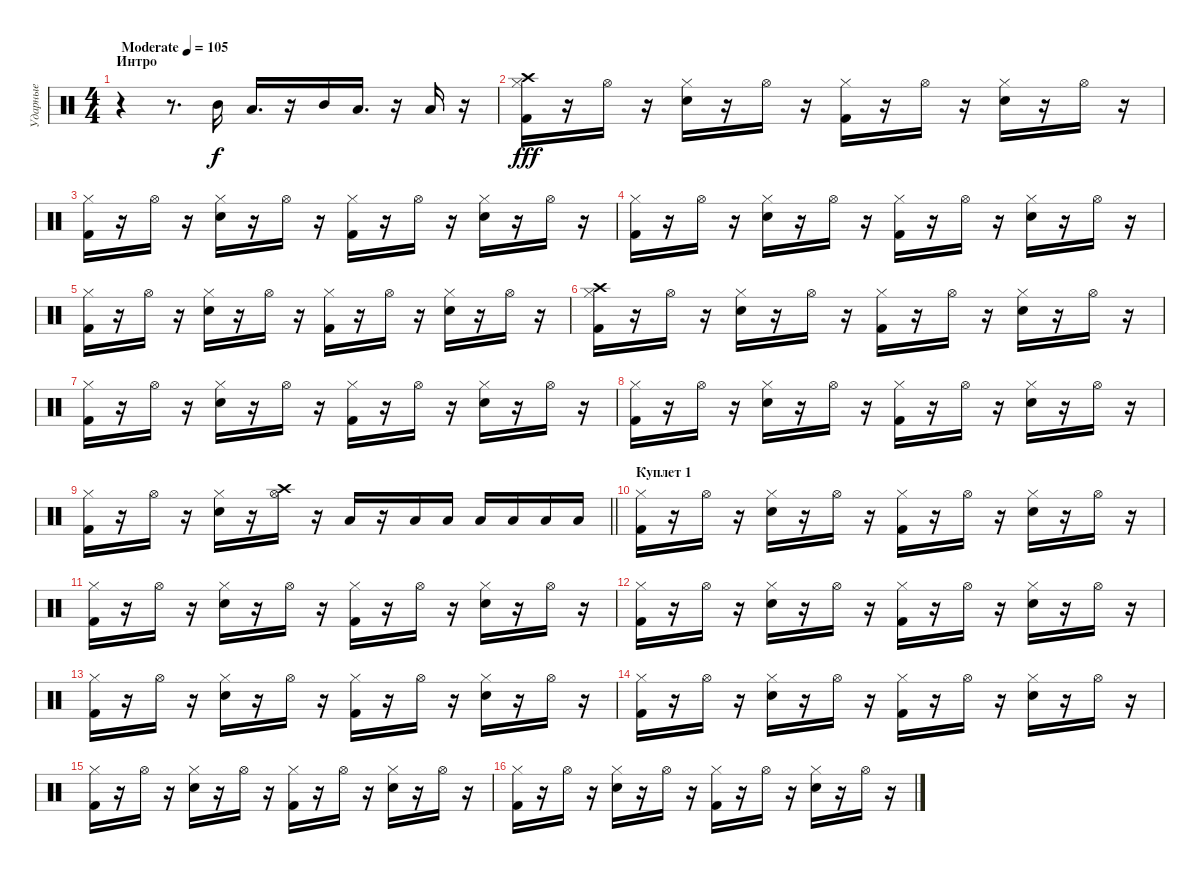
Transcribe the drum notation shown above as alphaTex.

\track ("Ударные" "Ударные") {instrument percussion}
\staff {score}
\articulation defaults
\ts (4 4)
\section ("" "Интро")
\tempo (105 "Moderate")
\clef neutral
\ks c
r.4{dy f} r.8{d} "Mid Tom (hit)".16 "Low Tom (hit)".16{d} r.16 "Mid Tom (hit)".16 "Low Tom (hit)".16{d} r.16 "Low Tom (hit)".16 r.16 |
("Kick (hit) 2" "Hi-Hat (closed)" "Crash high (hit)").16{dy fff} r.16 "Hi-Hat (open)".16 r.16 ("Snare (hit) 2" "Hi-Hat (closed)").16 r.16 "Hi-Hat (open)".16 r.16 ("Kick (hit) 2" "Hi-Hat (closed)").16 r.16 "Hi-Hat (open)".16 r.16 ("Snare (hit) 2" "Hi-Hat (closed)").16 r.16 "Hi-Hat (open)".16 r.16 |
("Kick (hit) 2" "Hi-Hat (closed)").16 r.16 "Hi-Hat (open)".16 r.16 ("Snare (hit) 2" "Hi-Hat (closed)").16 r.16 "Hi-Hat (open)".16 r.16 ("Kick (hit) 2" "Hi-Hat (closed)").16 r.16 "Hi-Hat (open)".16 r.16 ("Snare (hit) 2" "Hi-Hat (closed)").16 r.16 "Hi-Hat (open)".16 r.16 |
("Kick (hit) 2" "Hi-Hat (closed)").16 r.16 "Hi-Hat (open)".16 r.16 ("Snare (hit) 2" "Hi-Hat (closed)").16 r.16 "Hi-Hat (open)".16 r.16 ("Kick (hit) 2" "Hi-Hat (closed)").16 r.16 "Hi-Hat (open)".16 r.16 ("Snare (hit) 2" "Hi-Hat (closed)").16 r.16 "Hi-Hat (open)".16 r.16 |
("Kick (hit) 2" "Hi-Hat (closed)").16 r.16 "Hi-Hat (open)".16 r.16 ("Snare (hit) 2" "Hi-Hat (closed)").16 r.16 "Hi-Hat (open)".16 r.16 ("Kick (hit) 2" "Hi-Hat (closed)").16 r.16 "Hi-Hat (open)".16 r.16 ("Snare (hit) 2" "Hi-Hat (closed)").16 r.16 "Hi-Hat (open)".16 r.16 |
("Kick (hit) 2" "Hi-Hat (closed)" "Crash high (hit)").16 r.16 "Hi-Hat (open)".16 r.16 ("Snare (hit) 2" "Hi-Hat (closed)").16 r.16 "Hi-Hat (open)".16 r.16 ("Kick (hit) 2" "Hi-Hat (closed)").16 r.16 "Hi-Hat (open)".16 r.16 ("Snare (hit) 2" "Hi-Hat (closed)").16 r.16 "Hi-Hat (open)".16 r.16 |
("Kick (hit) 2" "Hi-Hat (closed)").16 r.16 "Hi-Hat (open)".16 r.16 ("Snare (hit) 2" "Hi-Hat (closed)").16 r.16 "Hi-Hat (open)".16 r.16 ("Kick (hit) 2" "Hi-Hat (closed)").16 r.16 "Hi-Hat (open)".16 r.16 ("Snare (hit) 2" "Hi-Hat (closed)").16 r.16 "Hi-Hat (open)".16 r.16 |
("Kick (hit) 2" "Hi-Hat (closed)").16 r.16 "Hi-Hat (open)".16 r.16 ("Snare (hit) 2" "Hi-Hat (closed)").16 r.16 "Hi-Hat (open)".16 r.16 ("Kick (hit) 2" "Hi-Hat (closed)").16 r.16 "Hi-Hat (open)".16 r.16 ("Snare (hit) 2" "Hi-Hat (closed)").16 r.16 "Hi-Hat (open)".16 r.16 |
\barLineRight lightlight
("Kick (hit) 2" "Hi-Hat (closed)").16 r.16 "Hi-Hat (open)".16 r.16 ("Snare (hit) 2" "Hi-Hat (closed)").16 r.16 ("Hi-Hat (open)" "Crash high (hit)").16 r.16 "Low Floor Tom (hit)".16 r.16 "Low Tom (hit)".16 "Low Floor Tom (hit)".16 "Low Tom (hit)".16 "Low Floor Tom (hit)".16 "Low Tom (hit)".16 "Low Floor Tom (hit)".16 |
\section ("" "Куплет 1")
("Kick (hit) 2" "Hi-Hat (closed)").16 r.16 "Hi-Hat (open)".16 r.16 ("Snare (hit) 2" "Hi-Hat (closed)").16 r.16 "Hi-Hat (open)".16 r.16 ("Kick (hit) 2" "Hi-Hat (closed)").16 r.16 "Hi-Hat (open)".16 r.16 ("Snare (hit) 2" "Hi-Hat (closed)").16 r.16 "Hi-Hat (open)".16 r.16 |
("Kick (hit) 2" "Hi-Hat (closed)").16 r.16 "Hi-Hat (open)".16 r.16 ("Snare (hit) 2" "Hi-Hat (closed)").16 r.16 "Hi-Hat (open)".16 r.16 ("Kick (hit) 2" "Hi-Hat (closed)").16 r.16 "Hi-Hat (open)".16 r.16 ("Snare (hit) 2" "Hi-Hat (closed)").16 r.16 "Hi-Hat (open)".16 r.16 |
("Kick (hit) 2" "Hi-Hat (closed)").16 r.16 "Hi-Hat (open)".16 r.16 ("Snare (hit) 2" "Hi-Hat (closed)").16 r.16 "Hi-Hat (open)".16 r.16 ("Kick (hit) 2" "Hi-Hat (closed)").16 r.16 "Hi-Hat (open)".16 r.16 ("Snare (hit) 2" "Hi-Hat (closed)").16 r.16 "Hi-Hat (open)".16 r.16 |
("Kick (hit) 2" "Hi-Hat (closed)").16 r.16 "Hi-Hat (open)".16 r.16 ("Snare (hit) 2" "Hi-Hat (closed)").16 r.16 "Hi-Hat (open)".16 r.16 ("Kick (hit) 2" "Hi-Hat (closed)").16 r.16 "Hi-Hat (open)".16 r.16 ("Snare (hit) 2" "Hi-Hat (closed)").16 r.16 "Hi-Hat (open)".16 r.16 |
("Kick (hit) 2" "Hi-Hat (closed)").16 r.16 "Hi-Hat (open)".16 r.16 ("Snare (hit) 2" "Hi-Hat (closed)").16 r.16 "Hi-Hat (open)".16 r.16 ("Kick (hit) 2" "Hi-Hat (closed)").16 r.16 "Hi-Hat (open)".16 r.16 ("Snare (hit) 2" "Hi-Hat (closed)").16 r.16 "Hi-Hat (open)".16 r.16 |
("Kick (hit) 2" "Hi-Hat (closed)").16 r.16 "Hi-Hat (open)".16 r.16 ("Snare (hit) 2" "Hi-Hat (closed)").16 r.16 "Hi-Hat (open)".16 r.16 ("Kick (hit) 2" "Hi-Hat (closed)").16 r.16 "Hi-Hat (open)".16 r.16 ("Snare (hit) 2" "Hi-Hat (closed)").16 r.16 "Hi-Hat (open)".16 r.16 |
("Kick (hit) 2" "Hi-Hat (closed)").16 r.16 "Hi-Hat (open)".16 r.16 ("Snare (hit) 2" "Hi-Hat (closed)").16 r.16 "Hi-Hat (open)".16 r.16 ("Kick (hit) 2" "Hi-Hat (closed)").16 r.16 "Hi-Hat (open)".16 r.16 ("Snare (hit) 2" "Hi-Hat (closed)").16 r.16 "Hi-Hat (open)".16 r.16
